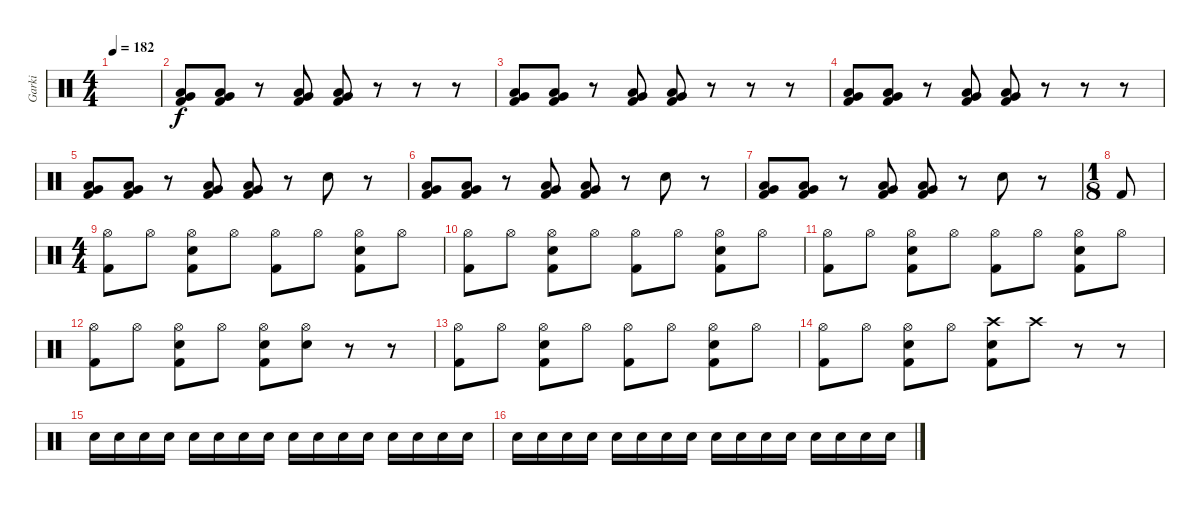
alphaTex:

\track ("Garki" "Garki") {instrument percussion}
\staff {score}
\articulation defaults
\ts (4 4)
\tempo 182
\clef neutral
\ks c
|
("Low Tom (hit)" "Very Low Tom (hit)" "Kick (hit) 2").8 ("Low Tom (hit)" "Very Low Tom (hit)" "Kick (hit) 2").8 r.8 ("Low Tom (hit)" "Very Low Tom (hit)" "Kick (hit) 2").8 ("Low Tom (hit)" "Very Low Tom (hit)" "Kick (hit) 2").8 r.8 r.8 r.8 |
("Low Tom (hit)" "Very Low Tom (hit)" "Kick (hit) 2").8 ("Low Tom (hit)" "Very Low Tom (hit)" "Kick (hit) 2").8 r.8 ("Low Tom (hit)" "Very Low Tom (hit)" "Kick (hit) 2").8 ("Low Tom (hit)" "Very Low Tom (hit)" "Kick (hit) 2").8 r.8 r.8 r.8 |
("Low Tom (hit)" "Very Low Tom (hit)" "Kick (hit) 2").8 ("Low Tom (hit)" "Very Low Tom (hit)" "Kick (hit) 2").8 r.8 ("Low Tom (hit)" "Very Low Tom (hit)" "Kick (hit) 2").8 ("Low Tom (hit)" "Very Low Tom (hit)" "Kick (hit) 2").8 r.8 r.8 r.8 |
("Low Tom (hit)" "Very Low Tom (hit)" "Kick (hit) 2").8 ("Low Tom (hit)" "Very Low Tom (hit)" "Kick (hit) 2").8 r.8 ("Low Tom (hit)" "Very Low Tom (hit)" "Kick (hit) 2").8 ("Low Tom (hit)" "Very Low Tom (hit)" "Kick (hit) 2").8 r.8 "Snare (hit) 2".8 r.8 |
("Low Tom (hit)" "Very Low Tom (hit)" "Kick (hit) 2").8 ("Low Tom (hit)" "Very Low Tom (hit)" "Kick (hit) 2").8 r.8 ("Low Tom (hit)" "Very Low Tom (hit)" "Kick (hit) 2").8 ("Low Tom (hit)" "Very Low Tom (hit)" "Kick (hit) 2").8 r.8 "Snare (hit) 2".8 r.8 |
("Low Tom (hit)" "Very Low Tom (hit)" "Kick (hit) 2").8 ("Low Tom (hit)" "Very Low Tom (hit)" "Kick (hit) 2").8 r.8 ("Low Tom (hit)" "Very Low Tom (hit)" "Kick (hit) 2").8 ("Low Tom (hit)" "Very Low Tom (hit)" "Kick (hit) 2").8 r.8 "Snare (hit) 2".8 r.8 |
\ts (1 8)
"Kick (hit) 2".8 |
\ts (4 4)
("Hi-Hat (open)" "Kick (hit) 2").8 "Hi-Hat (open)".8 ("Hi-Hat (open)" "Snare (hit) 2" "Kick (hit) 2").8 "Hi-Hat (open)".8 ("Hi-Hat (open)" "Kick (hit) 2").8 "Hi-Hat (open)".8 ("Hi-Hat (open)" "Snare (hit) 2" "Kick (hit) 2").8 "Hi-Hat (open)".8 |
("Hi-Hat (open)" "Kick (hit) 2").8 "Hi-Hat (open)".8 ("Hi-Hat (open)" "Snare (hit) 2" "Kick (hit) 2").8 "Hi-Hat (open)".8 ("Hi-Hat (open)" "Kick (hit) 2").8 "Hi-Hat (open)".8 ("Hi-Hat (open)" "Snare (hit) 2" "Kick (hit) 2").8 "Hi-Hat (open)".8 |
("Hi-Hat (open)" "Kick (hit) 2").8 "Hi-Hat (open)".8 ("Hi-Hat (open)" "Snare (hit) 2" "Kick (hit) 2").8 "Hi-Hat (open)".8 ("Hi-Hat (open)" "Kick (hit) 2").8 "Hi-Hat (open)".8 ("Hi-Hat (open)" "Snare (hit) 2" "Kick (hit) 2").8 "Hi-Hat (open)".8 |
("Hi-Hat (open)" "Kick (hit) 2").8 "Hi-Hat (open)".8 ("Hi-Hat (open)" "Snare (hit) 2" "Kick (hit) 2").8 "Hi-Hat (open)".8 ("Hi-Hat (open)" "Snare (hit) 2" "Kick (hit) 2").8 ("Hi-Hat (open)" "Snare (hit) 2").8 r.8 r.8 |
("Hi-Hat (open)" "Kick (hit) 2").8 "Hi-Hat (open)".8 ("Hi-Hat (open)" "Snare (hit) 2" "Kick (hit) 2").8 "Hi-Hat (open)".8 ("Hi-Hat (open)" "Kick (hit) 2").8 "Hi-Hat (open)".8 ("Hi-Hat (open)" "Snare (hit) 2" "Kick (hit) 2").8 "Hi-Hat (open)".8 |
("Hi-Hat (open)" "Kick (hit) 2").8 "Hi-Hat (open)".8 ("Hi-Hat (open)" "Snare (hit) 2" "Kick (hit) 2").8 "Hi-Hat (open)".8 ("Crash high (hit)" "Snare (hit) 2" "Kick (hit) 2").8 "Crash high (hit)".8 r.8 r.8{volume 2} |
"Snare (hit) 2".16{volume 13} "Snare (hit) 2".16 "Snare (hit) 2".16 "Snare (hit) 2".16 "Snare (hit) 2".16 "Snare (hit) 2".16 "Snare (hit) 2".16 "Snare (hit) 2".16 "Snare (hit) 2".16 "Snare (hit) 2".16 "Snare (hit) 2".16 "Snare (hit) 2".16 "Snare (hit) 2".16 "Snare (hit) 2".16 "Snare (hit) 2".16 "Snare (hit) 2".16 |
"Snare (hit) 2".16 "Snare (hit) 2".16 "Snare (hit) 2".16 "Snare (hit) 2".16 "Snare (hit) 2".16 "Snare (hit) 2".16 "Snare (hit) 2".16 "Snare (hit) 2".16 "Snare (hit) 2".16 "Snare (hit) 2".16 "Snare (hit) 2".16 "Snare (hit) 2".16 "Snare (hit) 2".16 "Snare (hit) 2".16 "Snare (hit) 2".16 "Snare (hit) 2".16
